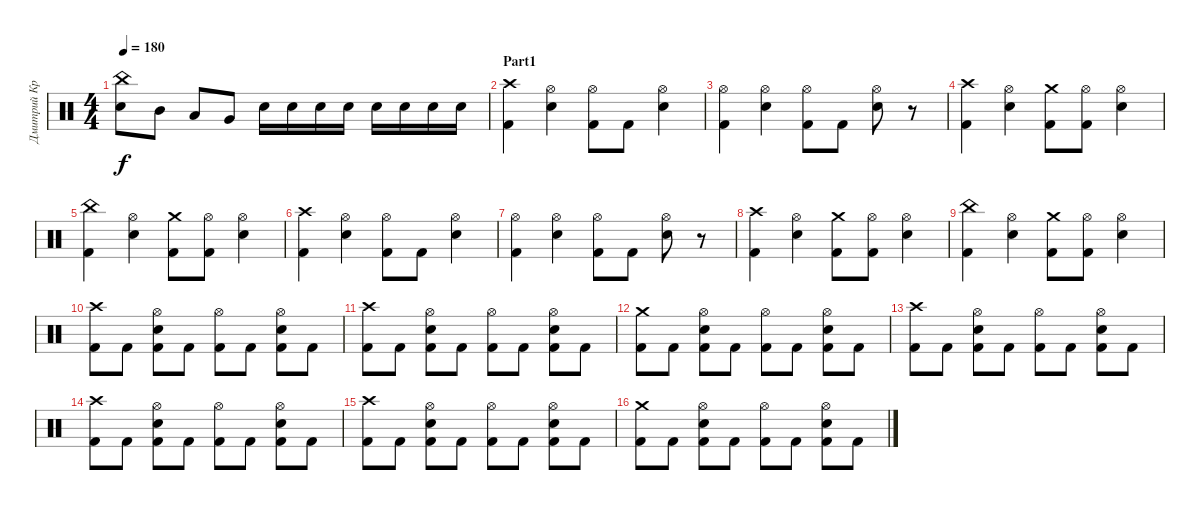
\track ("Дмитрий Кривенков" "Дмитрий Кр") {instrument percussion}
\staff {score}
\articulation defaults
\ts (4 4)
\tempo 180
\clef neutral
\ks c
("Electric Snare (hit)" "China (hit)").8{dy f} "Mid Tom (hit)".8 "Low Tom (hit)".8 "Very Low Tom (hit)".8 "Snare (hit) 2".16 "Snare (hit) 2".16 "Snare (hit) 2".16 "Snare (hit) 2".16 "Snare (hit) 2".16 "Snare (hit) 2".16 "Snare (hit) 2".16 "Electric Snare (hit)".16 |
\section ("" "Part1")
("Kick (hit) 2" "Crash high (hit)").4 ("Hi-Hat (open)" "Electric Snare (hit)").4 ("Kick (hit) 2" "Hi-Hat (open)").8 "Kick (hit) 2".8 ("Electric Snare (hit)" "Hi-Hat (open)").4 |
("Kick (hit) 2" "Hi-Hat (open)").4 ("Hi-Hat (open)" "Electric Snare (hit)").4 ("Kick (hit) 2" "Hi-Hat (open)").8 "Kick (hit) 2".8 ("Hi-Hat (open)" "Electric Snare (hit)").8 r.8 |
("Crash high (hit)" "Kick (hit) 2").4 ("Hi-Hat (open)" "Electric Snare (hit)").4 ("Kick (hit) 2" "Crash medium (hit)").8 ("Kick (hit) 2" "Hi-Hat (open)").8 ("Electric Snare (hit)" "Hi-Hat (open)").4 |
("Kick (hit) 2" "China (hit)").4 ("Hi-Hat (open)" "Electric Snare (hit)").4 ("Kick (hit) 2" "Crash medium (hit)").8 ("Hi-Hat (open)" "Kick (hit) 2").8 ("Electric Snare (hit)" "Hi-Hat (open)").4 |
("Kick (hit) 2" "Crash high (hit)").4 ("Hi-Hat (open)" "Electric Snare (hit)").4 ("Kick (hit) 2" "Hi-Hat (open)").8 "Kick (hit) 2".8 ("Electric Snare (hit)" "Hi-Hat (open)").4 |
("Kick (hit) 2" "Hi-Hat (open)").4 ("Hi-Hat (open)" "Electric Snare (hit)").4 ("Kick (hit) 2" "Hi-Hat (open)").8 "Kick (hit) 2".8 ("Hi-Hat (open)" "Electric Snare (hit)").8 r.8 |
("Crash high (hit)" "Kick (hit) 2").4 ("Hi-Hat (open)" "Electric Snare (hit)").4 ("Kick (hit) 2" "Crash medium (hit)").8 ("Kick (hit) 2" "Hi-Hat (open)").8 ("Electric Snare (hit)" "Hi-Hat (open)").4 |
("Kick (hit) 2" "China (hit)").4 ("Hi-Hat (open)" "Electric Snare (hit)").4 ("Kick (hit) 2" "Crash medium (hit)").8 ("Hi-Hat (open)" "Kick (hit) 2").8 ("Electric Snare (hit)" "Hi-Hat (open)").4 |
("Kick (hit) 2" "Crash high (hit)").8 "Kick (hit) 2".8 ("Hi-Hat (open)" "Electric Snare (hit)" "Kick (hit) 2").8 "Kick (hit) 2".8 ("Hi-Hat (open)" "Kick (hit) 2").8 "Kick (hit) 2".8 ("Kick (hit) 2" "Electric Snare (hit)" "Hi-Hat (open)").8 "Kick (hit) 2".8 |
("Kick (hit) 2" "Crash high (hit)").8 "Kick (hit) 2".8 ("Hi-Hat (open)" "Electric Snare (hit)" "Kick (hit) 2").8 "Kick (hit) 2".8 ("Hi-Hat (open)" "Kick (hit) 2").8 "Kick (hit) 2".8 ("Kick (hit) 2" "Electric Snare (hit)" "Hi-Hat (open)").8 "Kick (hit) 2".8 |
("Kick (hit) 2" "Crash medium (hit)").8 "Kick (hit) 2".8 ("Hi-Hat (open)" "Electric Snare (hit)" "Kick (hit) 2").8 "Kick (hit) 2".8 ("Hi-Hat (open)" "Kick (hit) 2").8 "Kick (hit) 2".8 ("Kick (hit) 2" "Electric Snare (hit)" "Hi-Hat (open)").8 "Kick (hit) 2".8 |
("Kick (hit) 2" "Crash high (hit)").8 "Kick (hit) 2".8 ("Hi-Hat (open)" "Electric Snare (hit)" "Kick (hit) 2").8 "Kick (hit) 2".8 ("Hi-Hat (open)" "Kick (hit) 2").8 "Kick (hit) 2".8 ("Kick (hit) 2" "Electric Snare (hit)" "Hi-Hat (open)").8 "Kick (hit) 2".8 |
("Kick (hit) 2" "Crash high (hit)").8 "Kick (hit) 2".8 ("Hi-Hat (open)" "Electric Snare (hit)" "Kick (hit) 2").8 "Kick (hit) 2".8 ("Hi-Hat (open)" "Kick (hit) 2").8 "Kick (hit) 2".8 ("Kick (hit) 2" "Electric Snare (hit)" "Hi-Hat (open)").8 "Kick (hit) 2".8 |
("Kick (hit) 2" "Crash high (hit)").8 "Kick (hit) 2".8 ("Hi-Hat (open)" "Electric Snare (hit)" "Kick (hit) 2").8 "Kick (hit) 2".8 ("Hi-Hat (open)" "Kick (hit) 2").8 "Kick (hit) 2".8 ("Kick (hit) 2" "Electric Snare (hit)" "Hi-Hat (open)").8 "Kick (hit) 2".8 |
("Kick (hit) 2" "Crash medium (hit)").8 "Kick (hit) 2".8 ("Hi-Hat (open)" "Electric Snare (hit)" "Kick (hit) 2").8 "Kick (hit) 2".8 ("Hi-Hat (open)" "Kick (hit) 2").8 "Kick (hit) 2".8 ("Kick (hit) 2" "Electric Snare (hit)" "Hi-Hat (open)").8 "Kick (hit) 2".8
